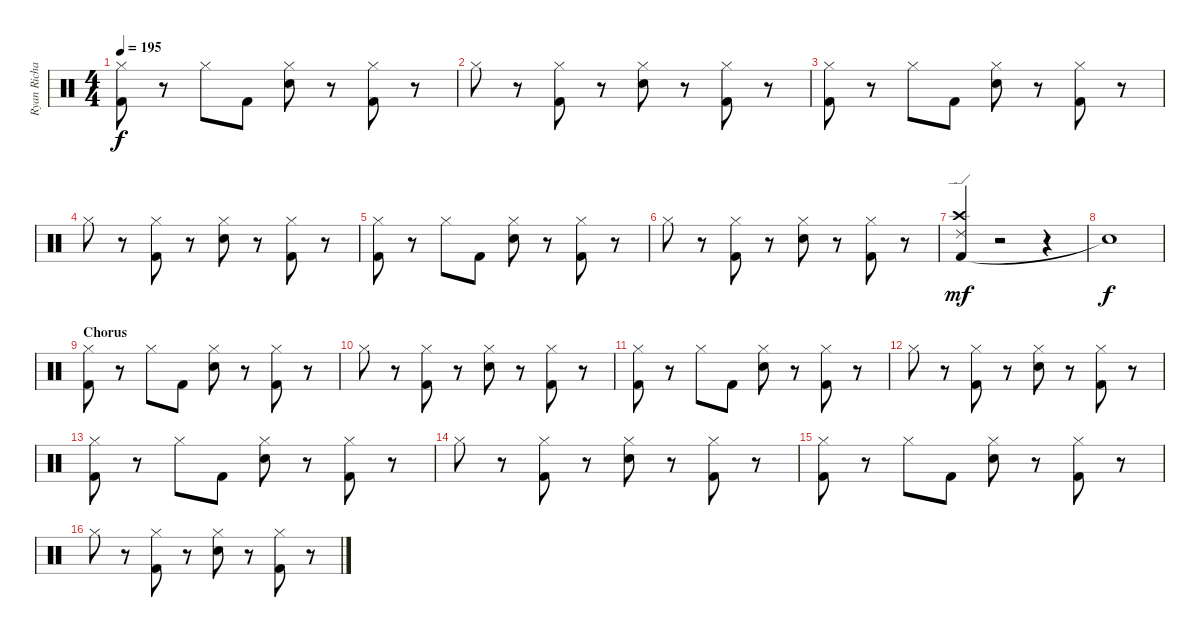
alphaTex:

\track ("Ryan Richards" "Ryan Richa") {instrument percussion}
\staff {score}
\articulation defaults
\ts (4 4)
\tempo 195
\clef neutral
\ks c
("Kick (hit) 2" "Hi-Hat (closed)").8{dy f} r.8 "Hi-Hat (closed)".8 "Kick (hit) 2".8 ("Hi-Hat (closed)" "Snare (hit) 2").8 r.8 ("Kick (hit) 2" "Hi-Hat (closed)").8 r.8 |
"Hi-Hat (closed)".8 r.8 ("Kick (hit) 2" "Hi-Hat (closed)").8 r.8 ("Hi-Hat (closed)" "Snare (hit) 2").8 r.8 ("Kick (hit) 2" "Hi-Hat (closed)").8 r.8 |
("Kick (hit) 2" "Hi-Hat (closed)").8 r.8 "Hi-Hat (closed)".8 "Kick (hit) 2".8 ("Hi-Hat (closed)" "Snare (hit) 2").8 r.8 ("Kick (hit) 2" "Hi-Hat (closed)").8 r.8 |
"Hi-Hat (closed)".8 r.8 ("Kick (hit) 2" "Hi-Hat (closed)").8 r.8 ("Hi-Hat (closed)" "Snare (hit) 2").8 r.8 ("Kick (hit) 2" "Hi-Hat (closed)").8 r.8 |
("Kick (hit) 2" "Hi-Hat (closed)").8 r.8 "Hi-Hat (closed)".8 "Kick (hit) 2".8 ("Hi-Hat (closed)" "Snare (hit) 2").8 r.8 ("Kick (hit) 2" "Hi-Hat (closed)").8 r.8 |
"Hi-Hat (closed)".8 r.8 ("Kick (hit) 2" "Hi-Hat (closed)").8 r.8 ("Hi-Hat (closed)" "Snare (hit) 2").8 r.8 ("Kick (hit) 2" "Hi-Hat (closed)").8 r.8 |
("Kick (hit) 2" "Crash high (hit)" "Ride (edge) 2").4{dy mf} r.2 r.4 |
"Snare (hit)"{t}.1{dy f} |
\section ("" "Chorus")
("Kick (hit) 2" "Hi-Hat (closed)").8 r.8 "Hi-Hat (closed)".8 "Kick (hit) 2".8 ("Hi-Hat (closed)" "Snare (hit) 2").8 r.8 ("Kick (hit) 2" "Hi-Hat (closed)").8 r.8 |
"Hi-Hat (closed)".8 r.8 ("Kick (hit) 2" "Hi-Hat (closed)").8 r.8 ("Hi-Hat (closed)" "Snare (hit) 2").8 r.8 ("Kick (hit) 2" "Hi-Hat (closed)").8 r.8 |
("Kick (hit) 2" "Hi-Hat (closed)").8 r.8 "Hi-Hat (closed)".8 "Kick (hit) 2".8 ("Hi-Hat (closed)" "Snare (hit) 2").8 r.8 ("Kick (hit) 2" "Hi-Hat (closed)").8 r.8 |
"Hi-Hat (closed)".8 r.8 ("Kick (hit) 2" "Hi-Hat (closed)").8 r.8 ("Hi-Hat (closed)" "Snare (hit) 2").8 r.8 ("Kick (hit) 2" "Hi-Hat (closed)").8 r.8 |
("Kick (hit) 2" "Hi-Hat (closed)").8 r.8 "Hi-Hat (closed)".8 "Kick (hit) 2".8 ("Hi-Hat (closed)" "Snare (hit) 2").8 r.8 ("Kick (hit) 2" "Hi-Hat (closed)").8 r.8 |
"Hi-Hat (closed)".8 r.8 ("Kick (hit) 2" "Hi-Hat (closed)").8 r.8 ("Hi-Hat (closed)" "Snare (hit) 2").8 r.8 ("Kick (hit) 2" "Hi-Hat (closed)").8 r.8 |
("Kick (hit) 2" "Hi-Hat (closed)").8 r.8 "Hi-Hat (closed)".8 "Kick (hit) 2".8 ("Hi-Hat (closed)" "Snare (hit) 2").8 r.8 ("Kick (hit) 2" "Hi-Hat (closed)").8 r.8 |
"Hi-Hat (closed)".8 r.8 ("Kick (hit) 2" "Hi-Hat (closed)").8 r.8 ("Hi-Hat (closed)" "Snare (hit) 2").8 r.8 ("Kick (hit) 2" "Hi-Hat (closed)").8 r.8
